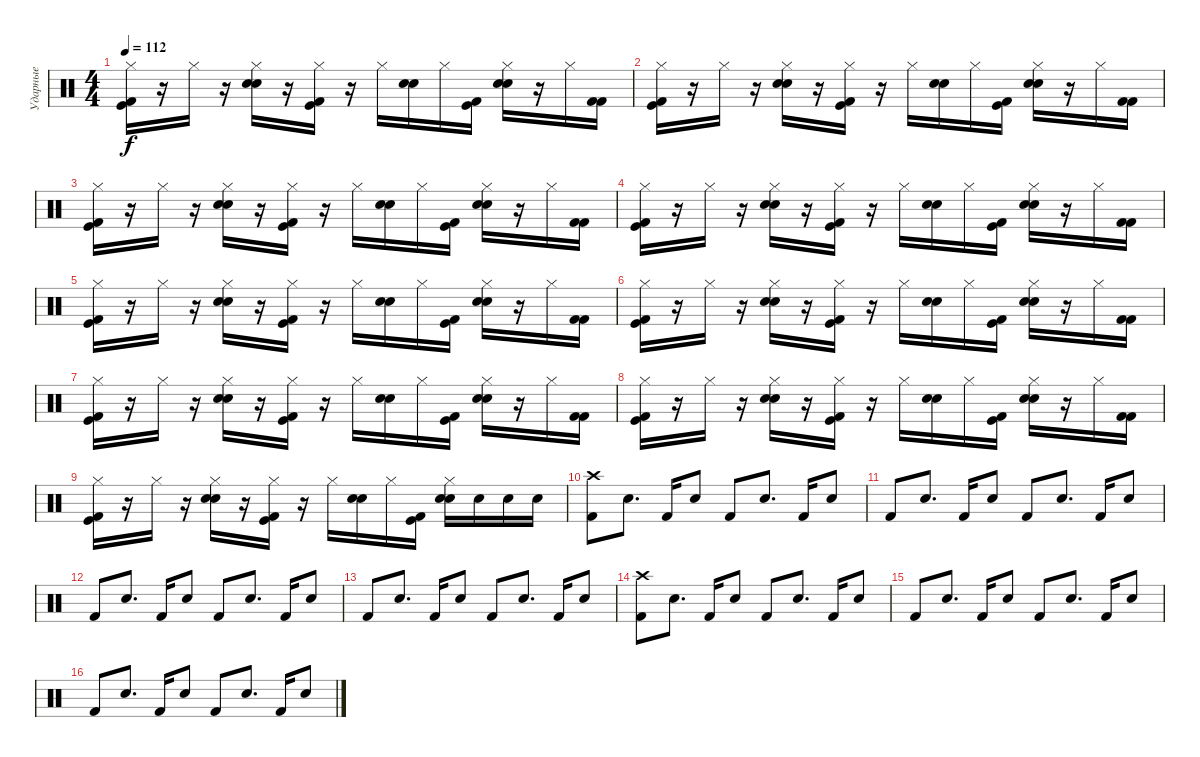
\track ("Ударные" "Ударные") {instrument percussion}
\staff {score}
\articulation defaults
\ts (4 4)
\tempo 112
\clef neutral
\ks c
("Hi-Hat (closed)" "Kick (hit)" "Kick (hit) 2").16{dy f} r.16 "Hi-Hat (closed)".16 r.16 ("Hi-Hat (closed)" "Electric Snare (hit)" "Snare (hit) 2").16 r.16 ("Hi-Hat (closed)" "Kick (hit)" "Kick (hit) 2").16 r.16 "Hi-Hat (closed)".16 ("Snare (hit) 2" "Electric Snare (hit)").16 "Hi-Hat (closed)".16 ("Kick (hit)" "Kick (hit) 2").16 ("Hi-Hat (closed)" "Electric Snare (hit)" "Snare (hit) 2").16 r.16 "Hi-Hat (closed)".16 ("Kick (hit) 2" "Kick (hit) 2").16 |
("Hi-Hat (closed)" "Kick (hit)" "Kick (hit) 2").16 r.16 "Hi-Hat (closed)".16 r.16 ("Hi-Hat (closed)" "Electric Snare (hit)" "Snare (hit) 2").16 r.16 ("Hi-Hat (closed)" "Kick (hit)" "Kick (hit) 2").16 r.16 "Hi-Hat (closed)".16 ("Snare (hit) 2" "Electric Snare (hit)").16 "Hi-Hat (closed)".16 ("Kick (hit)" "Kick (hit) 2").16 ("Hi-Hat (closed)" "Electric Snare (hit)" "Snare (hit) 2").16 r.16 "Hi-Hat (closed)".16 ("Kick (hit) 2" "Kick (hit) 2").16 |
("Hi-Hat (closed)" "Kick (hit)" "Kick (hit) 2").16 r.16 "Hi-Hat (closed)".16 r.16 ("Hi-Hat (closed)" "Electric Snare (hit)" "Snare (hit) 2").16 r.16 ("Hi-Hat (closed)" "Kick (hit)" "Kick (hit) 2").16 r.16 "Hi-Hat (closed)".16 ("Snare (hit) 2" "Electric Snare (hit)").16 "Hi-Hat (closed)".16 ("Kick (hit)" "Kick (hit) 2").16 ("Hi-Hat (closed)" "Electric Snare (hit)" "Snare (hit) 2").16 r.16 "Hi-Hat (closed)".16 ("Kick (hit) 2" "Kick (hit) 2").16 |
("Hi-Hat (closed)" "Kick (hit)" "Kick (hit) 2").16 r.16 "Hi-Hat (closed)".16 r.16 ("Hi-Hat (closed)" "Electric Snare (hit)" "Snare (hit) 2").16 r.16 ("Hi-Hat (closed)" "Kick (hit)" "Kick (hit) 2").16 r.16 "Hi-Hat (closed)".16 ("Snare (hit) 2" "Electric Snare (hit)").16 "Hi-Hat (closed)".16 ("Kick (hit)" "Kick (hit) 2").16 ("Hi-Hat (closed)" "Electric Snare (hit)" "Snare (hit) 2").16 r.16 "Hi-Hat (closed)".16 ("Kick (hit) 2" "Kick (hit) 2").16 |
("Hi-Hat (closed)" "Kick (hit)" "Kick (hit) 2").16 r.16 "Hi-Hat (closed)".16 r.16 ("Hi-Hat (closed)" "Electric Snare (hit)" "Snare (hit) 2").16 r.16 ("Hi-Hat (closed)" "Kick (hit)" "Kick (hit) 2").16 r.16 "Hi-Hat (closed)".16 ("Snare (hit) 2" "Electric Snare (hit)").16 "Hi-Hat (closed)".16 ("Kick (hit)" "Kick (hit) 2").16 ("Hi-Hat (closed)" "Electric Snare (hit)" "Snare (hit) 2").16 r.16 "Hi-Hat (closed)".16 ("Kick (hit) 2" "Kick (hit) 2").16 |
("Hi-Hat (closed)" "Kick (hit)" "Kick (hit) 2").16 r.16 "Hi-Hat (closed)".16 r.16 ("Hi-Hat (closed)" "Electric Snare (hit)" "Snare (hit) 2").16 r.16 ("Hi-Hat (closed)" "Kick (hit)" "Kick (hit) 2").16 r.16 "Hi-Hat (closed)".16 ("Snare (hit) 2" "Electric Snare (hit)").16 "Hi-Hat (closed)".16 ("Kick (hit)" "Kick (hit) 2").16 ("Hi-Hat (closed)" "Electric Snare (hit)" "Snare (hit) 2").16 r.16 "Hi-Hat (closed)".16 ("Kick (hit) 2" "Kick (hit) 2").16 |
("Hi-Hat (closed)" "Kick (hit)" "Kick (hit) 2").16 r.16 "Hi-Hat (closed)".16 r.16 ("Hi-Hat (closed)" "Electric Snare (hit)" "Snare (hit) 2").16 r.16 ("Hi-Hat (closed)" "Kick (hit)" "Kick (hit) 2").16 r.16 "Hi-Hat (closed)".16 ("Snare (hit) 2" "Electric Snare (hit)").16 "Hi-Hat (closed)".16 ("Kick (hit)" "Kick (hit) 2").16 ("Hi-Hat (closed)" "Electric Snare (hit)" "Snare (hit) 2").16 r.16 "Hi-Hat (closed)".16 ("Kick (hit) 2" "Kick (hit) 2").16 |
("Hi-Hat (closed)" "Kick (hit)" "Kick (hit) 2").16 r.16 "Hi-Hat (closed)".16 r.16 ("Hi-Hat (closed)" "Electric Snare (hit)" "Snare (hit) 2").16 r.16 ("Hi-Hat (closed)" "Kick (hit)" "Kick (hit) 2").16 r.16 "Hi-Hat (closed)".16 ("Snare (hit) 2" "Electric Snare (hit)").16 "Hi-Hat (closed)".16 ("Kick (hit)" "Kick (hit) 2").16 ("Hi-Hat (closed)" "Electric Snare (hit)" "Snare (hit) 2").16 r.16 "Hi-Hat (closed)".16 ("Kick (hit) 2" "Kick (hit) 2").16 |
("Hi-Hat (closed)" "Kick (hit)" "Kick (hit) 2").16 r.16 "Hi-Hat (closed)".16 r.16 ("Hi-Hat (closed)" "Electric Snare (hit)" "Snare (hit) 2").16 r.16 ("Hi-Hat (closed)" "Kick (hit)" "Kick (hit) 2").16 r.16 "Hi-Hat (closed)".16 ("Snare (hit) 2" "Electric Snare (hit)").16 "Hi-Hat (closed)".16 ("Kick (hit)" "Kick (hit) 2").16 ("Hi-Hat (closed)" "Electric Snare (hit)" "Snare (hit) 2").16 "Electric Snare (hit)".16 "Electric Snare (hit)".16 "Electric Snare (hit)".16 |
("Kick (hit) 2" "Crash high (hit)").8 "Electric Snare (hit)".8{d} "Kick (hit) 2".16 "Electric Snare (hit)".8 "Kick (hit) 2".8 "Electric Snare (hit)".8{d} "Kick (hit) 2".16 "Electric Snare (hit)".8 |
"Kick (hit) 2".8 "Electric Snare (hit)".8{d} "Kick (hit) 2".16 "Electric Snare (hit)".8 "Kick (hit) 2".8 "Electric Snare (hit)".8{d} "Kick (hit) 2".16 "Electric Snare (hit)".8 |
"Kick (hit) 2".8 "Electric Snare (hit)".8{d} "Kick (hit) 2".16 "Electric Snare (hit)".8 "Kick (hit) 2".8 "Electric Snare (hit)".8{d} "Kick (hit) 2".16 "Electric Snare (hit)".8 |
"Kick (hit) 2".8 "Electric Snare (hit)".8{d} "Kick (hit) 2".16 "Electric Snare (hit)".8 "Kick (hit) 2".8 "Electric Snare (hit)".8{d} "Kick (hit) 2".16 "Electric Snare (hit)".8 |
("Kick (hit) 2" "Crash high (hit)").8 "Electric Snare (hit)".8{d} "Kick (hit) 2".16 "Electric Snare (hit)".8 "Kick (hit) 2".8 "Electric Snare (hit)".8{d} "Kick (hit) 2".16 "Electric Snare (hit)".8 |
"Kick (hit) 2".8 "Electric Snare (hit)".8{d} "Kick (hit) 2".16 "Electric Snare (hit)".8 "Kick (hit) 2".8 "Electric Snare (hit)".8{d} "Kick (hit) 2".16 "Electric Snare (hit)".8 |
"Kick (hit) 2".8 "Electric Snare (hit)".8{d} "Kick (hit) 2".16 "Electric Snare (hit)".8 "Kick (hit) 2".8 "Electric Snare (hit)".8{d} "Kick (hit) 2".16 "Electric Snare (hit)".8
